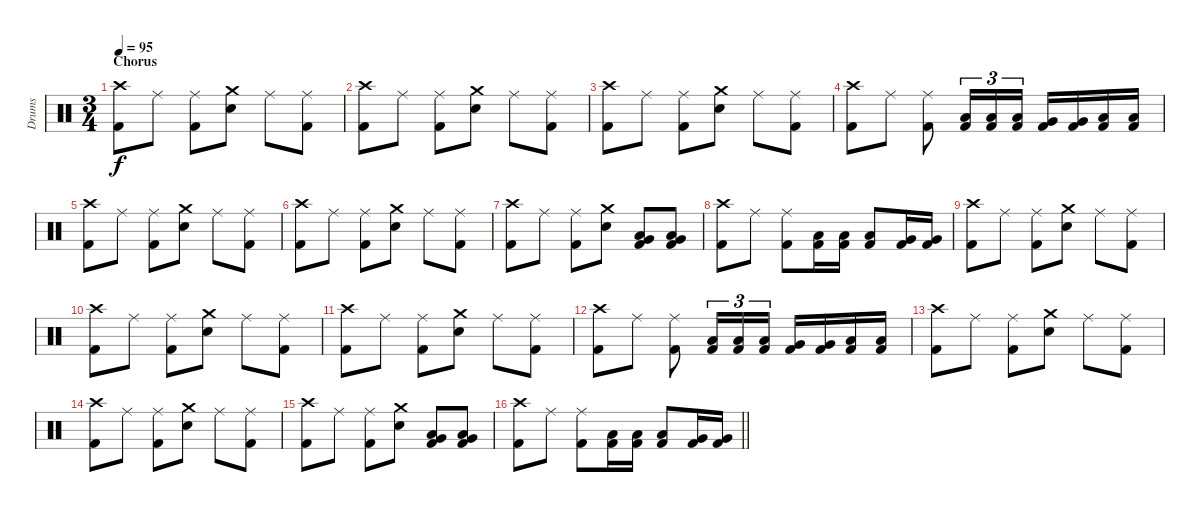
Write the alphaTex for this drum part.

\track ("Drums" "Drums") {instrument percussion}
\staff {score}
\articulation defaults
\ts (3 4)
\section ("" "Chorus")
\tempo 95
\clef neutral
\ks c
("Crash high (hit)" "Kick (hit) 2").8{dy f} "Ride (middle)".8 ("Ride (middle)" "Kick (hit) 2").8 ("Crash medium (hit)" "Electric Snare (hit)").8 "Ride (middle)".8 ("Ride (middle)" "Kick (hit) 2").8 |
("Crash high (hit)" "Kick (hit) 2").8 "Ride (middle)".8 ("Ride (middle)" "Kick (hit) 2").8 ("Crash medium (hit)" "Electric Snare (hit)").8 "Ride (middle)".8 ("Ride (middle)" "Kick (hit) 2").8 |
("Crash high (hit)" "Kick (hit) 2").8 "Ride (middle)".8 ("Ride (middle)" "Kick (hit) 2").8 ("Crash medium (hit)" "Electric Snare (hit)").8 "Ride (middle)".8 ("Ride (middle)" "Kick (hit) 2").8 |
("Crash high (hit)" "Kick (hit) 2").8 "Ride (middle)".8 ("Ride (middle)" "Kick (hit) 2").8 ("Low Tom (hit)" "Kick (hit) 2").16{tu (3 2)} ("Low Tom (hit)" "Kick (hit) 2").16{tu (3 2)} ("Low Tom (hit)" "Kick (hit) 2").16{tu (3 2)} ("Very Low Tom (hit)" "Kick (hit) 2").16 ("Very Low Tom (hit)" "Kick (hit) 2").16 ("Low Floor Tom (hit)" "Kick (hit) 2").16 ("Low Floor Tom (hit)" "Kick (hit) 2").16 |
("Crash high (hit)" "Kick (hit) 2").8 "Ride (middle)".8 ("Ride (middle)" "Kick (hit) 2").8 ("Crash medium (hit)" "Electric Snare (hit)").8 "Ride (middle)".8 ("Ride (middle)" "Kick (hit) 2").8 |
("Crash high (hit)" "Kick (hit) 2").8 "Ride (middle)".8 ("Ride (middle)" "Kick (hit) 2").8 ("Crash medium (hit)" "Electric Snare (hit)").8 "Ride (middle)".8 ("Ride (middle)" "Kick (hit) 2").8 |
("Crash high (hit)" "Kick (hit) 2").8 "Ride (middle)".8 ("Ride (middle)" "Kick (hit) 2").8 ("Crash medium (hit)" "Electric Snare (hit)").8 ("Low Tom (hit)" "Very Low Tom (hit)" "Kick (hit) 2").8 ("Low Tom (hit)" "Very Low Tom (hit)" "Kick (hit) 2").8 |
("Crash high (hit)" "Kick (hit) 2").8 "Ride (middle)".8 ("Ride (middle)" "Kick (hit) 2").8 ("Low Tom (hit)" "Kick (hit) 2").16 ("Low Tom (hit)" "Kick (hit) 2").16 ("Low Tom (hit)" "Kick (hit) 2").8 ("Very Low Tom (hit)" "Kick (hit) 2").16 ("Very Low Tom (hit)" "Kick (hit) 2").16 |
("Crash high (hit)" "Kick (hit) 2").8 "Ride (middle)".8 ("Ride (middle)" "Kick (hit) 2").8 ("Crash medium (hit)" "Electric Snare (hit)").8 "Ride (middle)".8 ("Ride (middle)" "Kick (hit) 2").8 |
("Crash high (hit)" "Kick (hit) 2").8 "Ride (middle)".8 ("Ride (middle)" "Kick (hit) 2").8 ("Crash medium (hit)" "Electric Snare (hit)").8 "Ride (middle)".8 ("Ride (middle)" "Kick (hit) 2").8 |
("Crash high (hit)" "Kick (hit) 2").8 "Ride (middle)".8 ("Ride (middle)" "Kick (hit) 2").8 ("Crash medium (hit)" "Electric Snare (hit)").8 "Ride (middle)".8 ("Ride (middle)" "Kick (hit) 2").8 |
("Crash high (hit)" "Kick (hit) 2").8 "Ride (middle)".8 ("Ride (middle)" "Kick (hit) 2").8 ("Low Tom (hit)" "Kick (hit) 2").16{tu (3 2)} ("Low Tom (hit)" "Kick (hit) 2").16{tu (3 2)} ("Low Tom (hit)" "Kick (hit) 2").16{tu (3 2)} ("Very Low Tom (hit)" "Kick (hit) 2").16 ("Very Low Tom (hit)" "Kick (hit) 2").16 ("Low Floor Tom (hit)" "Kick (hit) 2").16 ("Low Floor Tom (hit)" "Kick (hit) 2").16 |
("Crash high (hit)" "Kick (hit) 2").8 "Ride (middle)".8 ("Ride (middle)" "Kick (hit) 2").8 ("Crash medium (hit)" "Electric Snare (hit)").8 "Ride (middle)".8 ("Ride (middle)" "Kick (hit) 2").8 |
("Crash high (hit)" "Kick (hit) 2").8 "Ride (middle)".8 ("Ride (middle)" "Kick (hit) 2").8 ("Crash medium (hit)" "Electric Snare (hit)").8 "Ride (middle)".8 ("Ride (middle)" "Kick (hit) 2").8 |
("Crash high (hit)" "Kick (hit) 2").8 "Ride (middle)".8 ("Ride (middle)" "Kick (hit) 2").8 ("Crash medium (hit)" "Electric Snare (hit)").8 ("Low Tom (hit)" "Very Low Tom (hit)" "Kick (hit) 2").8 ("Low Tom (hit)" "Very Low Tom (hit)" "Kick (hit) 2").8 |
\barLineRight lightlight
("Crash high (hit)" "Kick (hit) 2").8 "Ride (middle)".8 ("Ride (middle)" "Kick (hit) 2").8 ("Low Tom (hit)" "Kick (hit) 2").16 ("Low Tom (hit)" "Kick (hit) 2").16 ("Low Tom (hit)" "Kick (hit) 2").8 ("Very Low Tom (hit)" "Kick (hit) 2").16 ("Very Low Tom (hit)" "Kick (hit) 2").16
